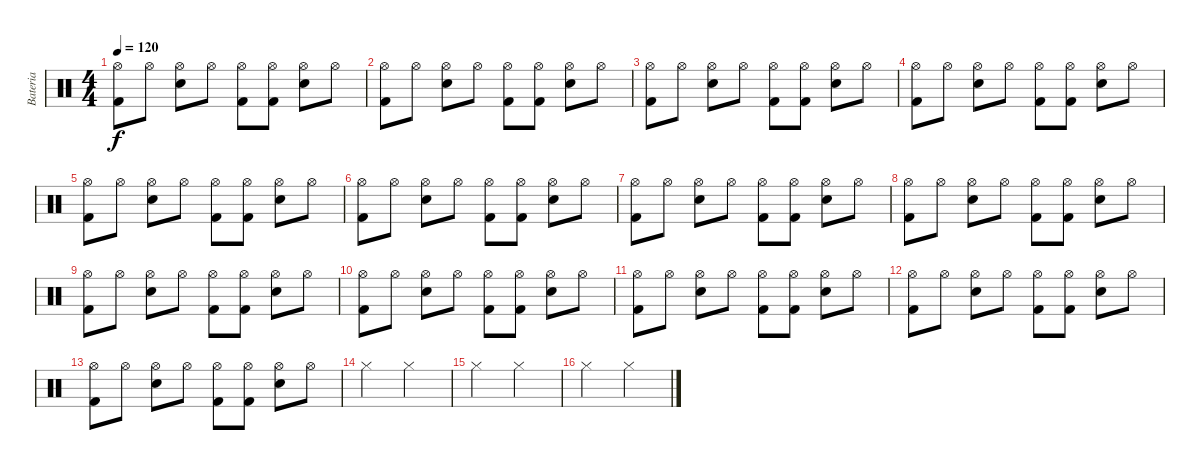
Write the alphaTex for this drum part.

\track ("Bateria" "Bateria") {instrument percussion}
\staff {score}
\articulation defaults
\ts (4 4)
\tempo 120
\clef neutral
\ks c
("Hi-Hat (open)" "Kick (hit) 2").8{dy f} "Hi-Hat (open)".8 ("Hi-Hat (open)" "Snare (hit) 2").8 "Hi-Hat (open)".8 ("Hi-Hat (open)" "Kick (hit) 2").8 ("Hi-Hat (open)" "Kick (hit) 2").8 ("Hi-Hat (open)" "Electric Snare (hit)").8 "Hi-Hat (open)".8 |
("Hi-Hat (open)" "Kick (hit) 2").8 "Hi-Hat (open)".8 ("Hi-Hat (open)" "Snare (hit) 2").8 "Hi-Hat (open)".8 ("Hi-Hat (open)" "Kick (hit) 2").8 ("Hi-Hat (open)" "Kick (hit) 2").8 ("Hi-Hat (open)" "Electric Snare (hit)").8 "Hi-Hat (open)".8 |
("Hi-Hat (open)" "Kick (hit) 2").8 "Hi-Hat (open)".8 ("Hi-Hat (open)" "Snare (hit) 2").8 "Hi-Hat (open)".8 ("Hi-Hat (open)" "Kick (hit) 2").8 ("Hi-Hat (open)" "Kick (hit) 2").8 ("Hi-Hat (open)" "Electric Snare (hit)").8 "Hi-Hat (open)".8 |
("Hi-Hat (open)" "Kick (hit) 2").8 "Hi-Hat (open)".8 ("Hi-Hat (open)" "Snare (hit) 2").8 "Hi-Hat (open)".8 ("Hi-Hat (open)" "Kick (hit) 2").8 ("Hi-Hat (open)" "Kick (hit) 2").8 ("Hi-Hat (open)" "Electric Snare (hit)").8 "Hi-Hat (open)".8 |
("Hi-Hat (open)" "Kick (hit) 2").8 "Hi-Hat (open)".8 ("Hi-Hat (open)" "Snare (hit) 2").8 "Hi-Hat (open)".8 ("Hi-Hat (open)" "Kick (hit) 2").8 ("Hi-Hat (open)" "Kick (hit) 2").8 ("Hi-Hat (open)" "Electric Snare (hit)").8 "Hi-Hat (open)".8 |
("Hi-Hat (open)" "Kick (hit) 2").8 "Hi-Hat (open)".8 ("Hi-Hat (open)" "Snare (hit) 2").8 "Hi-Hat (open)".8 ("Hi-Hat (open)" "Kick (hit) 2").8 ("Hi-Hat (open)" "Kick (hit) 2").8 ("Hi-Hat (open)" "Electric Snare (hit)").8 "Hi-Hat (open)".8 |
("Hi-Hat (open)" "Kick (hit) 2").8 "Hi-Hat (open)".8 ("Hi-Hat (open)" "Snare (hit) 2").8 "Hi-Hat (open)".8 ("Hi-Hat (open)" "Kick (hit) 2").8 ("Hi-Hat (open)" "Kick (hit) 2").8 ("Hi-Hat (open)" "Electric Snare (hit)").8 "Hi-Hat (open)".8 |
("Hi-Hat (open)" "Kick (hit) 2").8 "Hi-Hat (open)".8 ("Hi-Hat (open)" "Snare (hit) 2").8 "Hi-Hat (open)".8 ("Hi-Hat (open)" "Kick (hit) 2").8 ("Hi-Hat (open)" "Kick (hit) 2").8 ("Hi-Hat (open)" "Electric Snare (hit)").8 "Hi-Hat (open)".8 |
("Hi-Hat (open)" "Kick (hit) 2").8 "Hi-Hat (open)".8 ("Hi-Hat (open)" "Snare (hit) 2").8 "Hi-Hat (open)".8 ("Hi-Hat (open)" "Kick (hit) 2").8 ("Hi-Hat (open)" "Kick (hit) 2").8 ("Hi-Hat (open)" "Electric Snare (hit)").8 "Hi-Hat (open)".8 |
("Hi-Hat (open)" "Kick (hit) 2").8 "Hi-Hat (open)".8 ("Hi-Hat (open)" "Snare (hit) 2").8 "Hi-Hat (open)".8 ("Hi-Hat (open)" "Kick (hit) 2").8 ("Hi-Hat (open)" "Kick (hit) 2").8 ("Hi-Hat (open)" "Electric Snare (hit)").8 "Hi-Hat (open)".8 |
("Hi-Hat (open)" "Kick (hit) 2").8 "Hi-Hat (open)".8 ("Hi-Hat (open)" "Snare (hit) 2").8 "Hi-Hat (open)".8 ("Hi-Hat (open)" "Kick (hit) 2").8 ("Hi-Hat (open)" "Kick (hit) 2").8 ("Hi-Hat (open)" "Electric Snare (hit)").8 "Hi-Hat (open)".8 |
("Hi-Hat (open)" "Kick (hit) 2").8 "Hi-Hat (open)".8 ("Hi-Hat (open)" "Snare (hit) 2").8 "Hi-Hat (open)".8 ("Hi-Hat (open)" "Kick (hit) 2").8 ("Hi-Hat (open)" "Kick (hit) 2").8 ("Hi-Hat (open)" "Electric Snare (hit)").8 "Hi-Hat (open)".8 |
("Hi-Hat (open)" "Kick (hit) 2").8 "Hi-Hat (open)".8 ("Hi-Hat (open)" "Snare (hit) 2").8 "Hi-Hat (open)".8 ("Hi-Hat (open)" "Kick (hit) 2").8 ("Hi-Hat (open)" "Kick (hit) 2").8 ("Hi-Hat (open)" "Electric Snare (hit)").8 "Hi-Hat (open)".8 |
"Hi-Hat (closed)".2 "Hi-Hat (closed)".2 |
"Hi-Hat (closed)".2 "Hi-Hat (closed)".2 |
"Hi-Hat (closed)".2 "Hi-Hat (closed)".2
